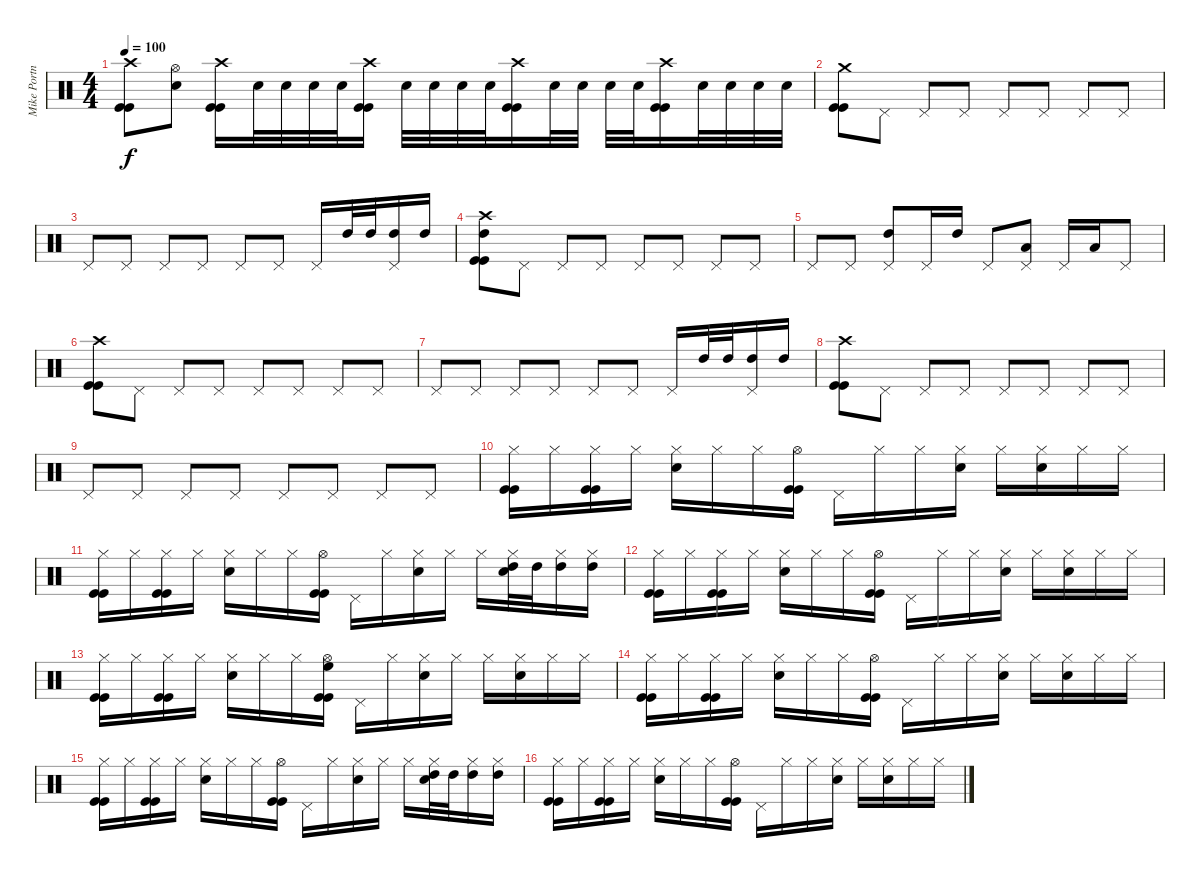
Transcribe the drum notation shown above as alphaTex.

\track ("Mike Portnoy - Drum" "Mike Portn") {instrument percussion}
\staff {score}
\articulation defaults
\ts (4 4)
\tempo 100
\clef neutral
\ks c
("Crash high (hit)" "Kick (hit)" "Kick (hit)").8{dy f} ("Hi-Hat (open)" "Snare (hit) 2").8 ("Crash high (hit)" "Kick (hit)" "Kick (hit)").16 "Snare (hit) 2".32 "Snare (hit) 2".32 "Snare (hit) 2".32 "Snare (hit) 2".32 ("Crash high (hit)" "Kick (hit)" "Kick (hit)").16 "Snare (hit) 2".32 "Snare (hit) 2".32 "Snare (hit) 2".32 "Snare (hit) 2".32 ("Crash high (hit)" "Kick (hit)" "Kick (hit)").16 "Snare (hit) 2".32 "Snare (hit) 2".32 "Snare (hit) 2".32 "Snare (hit) 2".32 ("Crash high (hit)" "Kick (hit)" "Kick (hit)").16 "Snare (hit) 2".32 "Snare (hit) 2".32 "Snare (hit) 2".32 "Snare (hit) 2".32 |
("Crash medium (hit)" "Kick (hit)" "Kick (hit)").8 "Pedal Hi-Hat (hit)".8 "Pedal Hi-Hat (hit)".8 "Pedal Hi-Hat (hit)".8 "Pedal Hi-Hat (hit)".8 "Pedal Hi-Hat (hit)".8 "Pedal Hi-Hat (hit)".8 "Pedal Hi-Hat (hit)".8 |
"Pedal Hi-Hat (hit)".8 "Pedal Hi-Hat (hit)".8 "Pedal Hi-Hat (hit)".8 "Pedal Hi-Hat (hit)".8 "Pedal Hi-Hat (hit)".8 "Pedal Hi-Hat (hit)".8 "Pedal Hi-Hat (hit)".16 "High Tom (hit)".32 "High Tom (hit)".32 ("High Tom (hit)" "Pedal Hi-Hat (hit)").16 "High Tom (hit)".16 |
("High Tom (hit)" "Crash high (hit)" "Kick (hit)" "Kick (hit)").8 "Pedal Hi-Hat (hit)".8 "Pedal Hi-Hat (hit)".8 "Pedal Hi-Hat (hit)".8 "Pedal Hi-Hat (hit)".8 "Pedal Hi-Hat (hit)".8 "Pedal Hi-Hat (hit)".8 "Pedal Hi-Hat (hit)".8 |
"Pedal Hi-Hat (hit)".8 "Pedal Hi-Hat (hit)".8 ("High Tom (hit)" "Pedal Hi-Hat (hit)").8 "Pedal Hi-Hat (hit)".16 "High Tom (hit)".16 "Pedal Hi-Hat (hit)".8 ("Low Tom (hit)" "Pedal Hi-Hat (hit)").8 "Pedal Hi-Hat (hit)".16 "Low Tom (hit)".16 "Pedal Hi-Hat (hit)".8 |
("Crash high (hit)" "Kick (hit)" "Kick (hit)").8 "Pedal Hi-Hat (hit)".8 "Pedal Hi-Hat (hit)".8 "Pedal Hi-Hat (hit)".8 "Pedal Hi-Hat (hit)".8 "Pedal Hi-Hat (hit)".8 "Pedal Hi-Hat (hit)".8 "Pedal Hi-Hat (hit)".8 |
"Pedal Hi-Hat (hit)".8 "Pedal Hi-Hat (hit)".8 "Pedal Hi-Hat (hit)".8 "Pedal Hi-Hat (hit)".8 "Pedal Hi-Hat (hit)".8 "Pedal Hi-Hat (hit)".8 "Pedal Hi-Hat (hit)".16 "High Tom (hit)".32 "High Tom (hit)".32 ("High Tom (hit)" "Pedal Hi-Hat (hit)").16 "High Tom (hit)".16 |
("Crash high (hit)" "Kick (hit)" "Kick (hit)").8 "Pedal Hi-Hat (hit)".8 "Pedal Hi-Hat (hit)".8 "Pedal Hi-Hat (hit)".8 "Pedal Hi-Hat (hit)".8 "Pedal Hi-Hat (hit)".8 "Pedal Hi-Hat (hit)".8 "Pedal Hi-Hat (hit)".8 |
"Pedal Hi-Hat (hit)".8 "Pedal Hi-Hat (hit)".8 "Pedal Hi-Hat (hit)".8 "Pedal Hi-Hat (hit)".8 "Pedal Hi-Hat (hit)".8 "Pedal Hi-Hat (hit)".8 "Pedal Hi-Hat (hit)".8 "Pedal Hi-Hat (hit)".8 |
("Hi-Hat (closed)" "Kick (hit)" "Kick (hit)").16 "Hi-Hat (closed)".16 ("Hi-Hat (closed)" "Kick (hit)" "Kick (hit)").16 "Hi-Hat (closed)".16 ("Hi-Hat (closed)" "Snare (hit) 2").16 "Hi-Hat (closed)".16 "Hi-Hat (closed)".16 ("Hi-Hat (open)" "Kick (hit)" "Kick (hit)").16 "Pedal Hi-Hat (hit)".16 "Hi-Hat (closed)".16 "Hi-Hat (closed)".16 ("Hi-Hat (closed)" "Snare (hit) 2").16 "Hi-Hat (closed)".16 ("Hi-Hat (closed)" "Snare (hit) 2").16 "Hi-Hat (closed)".16 "Hi-Hat (closed)".16 |
("Hi-Hat (closed)" "Kick (hit)" "Kick (hit)").16 "Hi-Hat (closed)".16 ("Hi-Hat (closed)" "Kick (hit)" "Kick (hit)").16 "Hi-Hat (closed)".16 ("Hi-Hat (closed)" "Snare (hit) 2").16 "Hi-Hat (closed)".16 "Hi-Hat (closed)".16 ("Hi-Hat (open)" "Kick (hit)" "Kick (hit)").16 "Pedal Hi-Hat (hit)".16 "Hi-Hat (closed)".16 ("Hi-Hat (closed)" "Snare (hit) 2").16 "Hi-Hat (closed)".16 "Hi-Hat (closed)".16 ("High Tom (hit)" "Hi-Hat (closed)" "Snare (hit) 2").32 "High Tom (hit)".32 ("High Tom (hit)" "Hi-Hat (closed)").16 ("High Tom (hit)" "Hi-Hat (closed)").16 |
("Hi-Hat (closed)" "Kick (hit)" "Kick (hit)").16 "Hi-Hat (closed)".16 ("Hi-Hat (closed)" "Kick (hit)" "Kick (hit)").16 "Hi-Hat (closed)".16 ("Hi-Hat (closed)" "Snare (hit) 2").16 "Hi-Hat (closed)".16 "Hi-Hat (closed)".16 ("Hi-Hat (open)" "Kick (hit)" "Kick (hit)").16 "Pedal Hi-Hat (hit)".16 "Hi-Hat (closed)".16 "Hi-Hat (closed)".16 ("Hi-Hat (closed)" "Snare (hit) 2").16 "Hi-Hat (closed)".16 ("Hi-Hat (closed)" "Snare (hit) 2").16 "Hi-Hat (closed)".16 "Hi-Hat (closed)".16 |
("Hi-Hat (closed)" "Kick (hit)" "Kick (hit)").16 "Hi-Hat (closed)".16 ("Hi-Hat (closed)" "Kick (hit)" "Kick (hit)").16 "Hi-Hat (closed)".16 ("Hi-Hat (closed)" "Snare (hit) 2").16 "Hi-Hat (closed)".16 "Hi-Hat (closed)".16 ("High Floor Tom (hit)" "Hi-Hat (open)" "Kick (hit)" "Kick (hit)").16 "Pedal Hi-Hat (hit)".16 "Hi-Hat (closed)".16 ("Hi-Hat (closed)" "Snare (hit) 2").16 "Hi-Hat (closed)".16 "Hi-Hat (closed)".16 ("Hi-Hat (closed)" "Snare (hit) 2").16 "Hi-Hat (closed)".16 "Hi-Hat (closed)".16 |
("Hi-Hat (closed)" "Kick (hit)" "Kick (hit)").16 "Hi-Hat (closed)".16 ("Hi-Hat (closed)" "Kick (hit)" "Kick (hit)").16 "Hi-Hat (closed)".16 ("Hi-Hat (closed)" "Snare (hit) 2").16 "Hi-Hat (closed)".16 "Hi-Hat (closed)".16 ("Hi-Hat (open)" "Kick (hit)" "Kick (hit)").16 "Pedal Hi-Hat (hit)".16 "Hi-Hat (closed)".16 "Hi-Hat (closed)".16 ("Hi-Hat (closed)" "Snare (hit) 2").16 "Hi-Hat (closed)".16 ("Hi-Hat (closed)" "Snare (hit) 2").16 "Hi-Hat (closed)".16 "Hi-Hat (closed)".16 |
("Hi-Hat (closed)" "Kick (hit)" "Kick (hit)").16 "Hi-Hat (closed)".16 ("Hi-Hat (closed)" "Kick (hit)" "Kick (hit)").16 "Hi-Hat (closed)".16 ("Hi-Hat (closed)" "Snare (hit) 2").16 "Hi-Hat (closed)".16 "Hi-Hat (closed)".16 ("Hi-Hat (open)" "Kick (hit)" "Kick (hit)").16 "Pedal Hi-Hat (hit)".16 "Hi-Hat (closed)".16 ("Hi-Hat (closed)" "Snare (hit) 2").16 "Hi-Hat (closed)".16 "Hi-Hat (closed)".16 ("High Tom (hit)" "Hi-Hat (closed)" "Snare (hit) 2").32 "High Tom (hit)".32 ("High Tom (hit)" "Hi-Hat (closed)").16 ("High Tom (hit)" "Hi-Hat (closed)").16 |
("Hi-Hat (closed)" "Kick (hit)" "Kick (hit)").16 "Hi-Hat (closed)".16 ("Hi-Hat (closed)" "Kick (hit)" "Kick (hit)").16 "Hi-Hat (closed)".16 ("Hi-Hat (closed)" "Snare (hit) 2").16 "Hi-Hat (closed)".16 "Hi-Hat (closed)".16 ("Hi-Hat (open)" "Kick (hit)" "Kick (hit)").16 "Pedal Hi-Hat (hit)".16 "Hi-Hat (closed)".16 "Hi-Hat (closed)".16 ("Hi-Hat (closed)" "Snare (hit) 2").16 "Hi-Hat (closed)".16 ("Hi-Hat (closed)" "Snare (hit) 2").16 "Hi-Hat (closed)".16 "Hi-Hat (closed)".16
